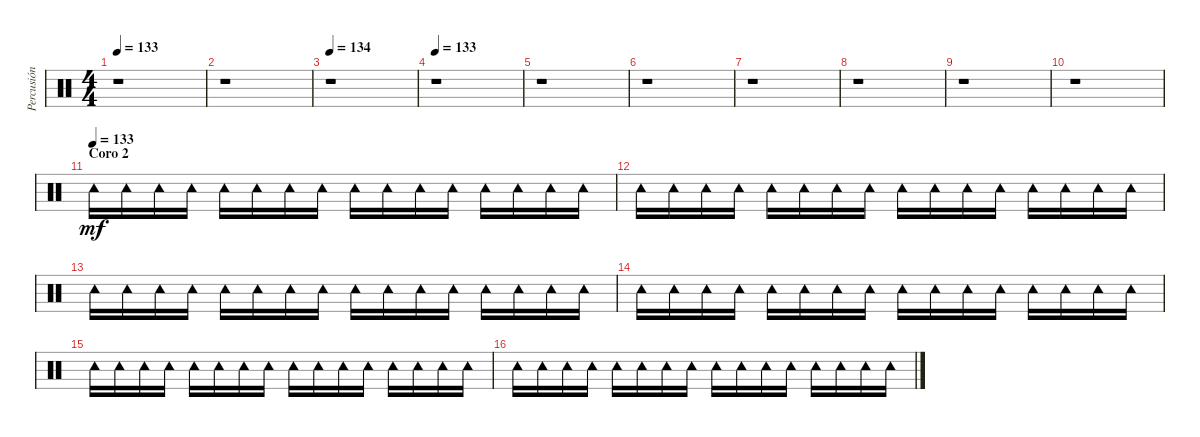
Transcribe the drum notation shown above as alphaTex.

\track ("Percusión extra" "Percusión ") {instrument percussion}
\staff {score}
\articulation defaults
\ts (4 4)
\tempo 133
\clef neutral
\ks c
r.1{dy mf} |
r.1 |
\tempo 134
r.1 |
\tempo 133
r.1 |
r.1 |
r.1 |
r.1 |
r.1 |
r.1 |
r.1 |
\section ("" "Coro 2")
\tempo (133)
"Tambourine (hit)".16 "Tambourine (hit)".16 "Tambourine (hit)".16 "Tambourine (hit)".16 "Tambourine (hit)".16 "Tambourine (hit)".16 "Tambourine (hit)".16 "Tambourine (hit)".16 "Tambourine (hit)".16 "Tambourine (hit)".16 "Tambourine (hit)".16 "Tambourine (hit)".16 "Tambourine (hit)".16 "Tambourine (hit)".16 "Tambourine (hit)".16 "Tambourine (hit)".16 |
"Tambourine (hit)".16 "Tambourine (hit)".16 "Tambourine (hit)".16 "Tambourine (hit)".16 "Tambourine (hit)".16 "Tambourine (hit)".16 "Tambourine (hit)".16 "Tambourine (hit)".16 "Tambourine (hit)".16 "Tambourine (hit)".16 "Tambourine (hit)".16 "Tambourine (hit)".16 "Tambourine (hit)".16 "Tambourine (hit)".16 "Tambourine (hit)".16 "Tambourine (hit)".16 |
"Tambourine (hit)".16 "Tambourine (hit)".16 "Tambourine (hit)".16 "Tambourine (hit)".16 "Tambourine (hit)".16 "Tambourine (hit)".16 "Tambourine (hit)".16 "Tambourine (hit)".16 "Tambourine (hit)".16 "Tambourine (hit)".16 "Tambourine (hit)".16 "Tambourine (hit)".16 "Tambourine (hit)".16 "Tambourine (hit)".16 "Tambourine (hit)".16 "Tambourine (hit)".16 |
"Tambourine (hit)".16 "Tambourine (hit)".16 "Tambourine (hit)".16 "Tambourine (hit)".16 "Tambourine (hit)".16 "Tambourine (hit)".16 "Tambourine (hit)".16 "Tambourine (hit)".16 "Tambourine (hit)".16 "Tambourine (hit)".16 "Tambourine (hit)".16 "Tambourine (hit)".16 "Tambourine (hit)".16 "Tambourine (hit)".16 "Tambourine (hit)".16 "Tambourine (hit)".16 |
"Tambourine (hit)".16 "Tambourine (hit)".16 "Tambourine (hit)".16 "Tambourine (hit)".16 "Tambourine (hit)".16 "Tambourine (hit)".16 "Tambourine (hit)".16 "Tambourine (hit)".16 "Tambourine (hit)".16 "Tambourine (hit)".16 "Tambourine (hit)".16 "Tambourine (hit)".16 "Tambourine (hit)".16 "Tambourine (hit)".16 "Tambourine (hit)".16 "Tambourine (hit)".16 |
"Tambourine (hit)".16 "Tambourine (hit)".16 "Tambourine (hit)".16 "Tambourine (hit)".16 "Tambourine (hit)".16 "Tambourine (hit)".16 "Tambourine (hit)".16 "Tambourine (hit)".16 "Tambourine (hit)".16 "Tambourine (hit)".16 "Tambourine (hit)".16 "Tambourine (hit)".16 "Tambourine (hit)".16 "Tambourine (hit)".16 "Tambourine (hit)".16 "Tambourine (hit)".16
